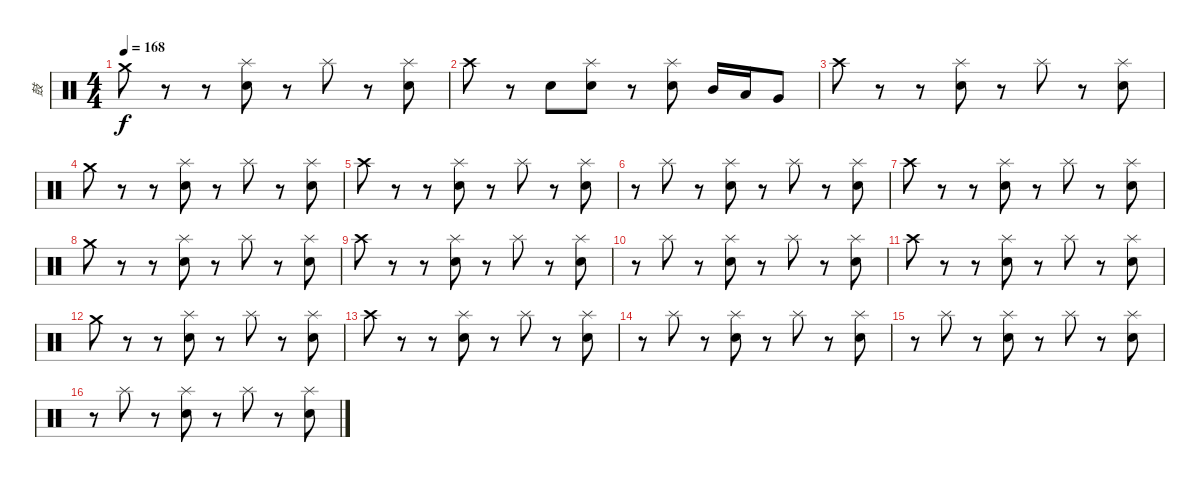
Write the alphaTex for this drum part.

\track ("鼓" "鼓") {instrument percussion}
\staff {score}
\articulation defaults
\ts (4 4)
\tempo 168
\clef neutral
\ks c "Crash medium (hit)".8{dy f}
r.8 r.8 ("Splash (hit)" "Snare (hit) 2").8 r.8 "Splash (hit)".8 r.8 ("Splash (hit)" "Snare (hit) 2").8 |
"Crash high (hit)".8 r.8 "Snare (hit) 2".8 ("Splash (hit)" "Snare (hit) 2").8 r.8 ("Splash (hit)" "Snare (hit) 2").8 "Mid Tom (hit)".16 "Low Tom (hit)".16 "Very Low Tom (hit)".8 |
"Crash high (hit)".8 r.8 r.8 ("Splash (hit)" "Snare (hit) 2").8 r.8 "Splash (hit)".8 r.8 ("Splash (hit)" "Snare (hit) 2").8 |
"Crash medium (hit)".8 r.8 r.8 ("Splash (hit)" "Snare (hit) 2").8 r.8 "Splash (hit)".8 r.8 ("Splash (hit)" "Snare (hit) 2").8 |
"Crash high (hit)".8 r.8 r.8 ("Splash (hit)" "Snare (hit) 2").8 r.8 "Splash (hit)".8 r.8 ("Splash (hit)" "Snare (hit) 2").8 |
r.8 "Splash (hit)".8 r.8 ("Splash (hit)" "Snare (hit) 2").8 r.8 "Splash (hit)".8 r.8 ("Splash (hit)" "Snare (hit) 2").8 |
"Crash high (hit)".8 r.8 r.8 ("Splash (hit)" "Snare (hit) 2").8 r.8 "Splash (hit)".8 r.8 ("Splash (hit)" "Snare (hit) 2").8 |
"Crash medium (hit)".8 r.8 r.8 ("Splash (hit)" "Snare (hit) 2").8 r.8 "Splash (hit)".8 r.8 ("Splash (hit)" "Snare (hit) 2").8 |
"Crash high (hit)".8 r.8 r.8 ("Splash (hit)" "Snare (hit) 2").8 r.8 "Splash (hit)".8 r.8 ("Splash (hit)" "Snare (hit) 2").8 |
r.8 "Splash (hit)".8 r.8 ("Splash (hit)" "Snare (hit) 2").8 r.8 "Splash (hit)".8 r.8 ("Splash (hit)" "Snare (hit) 2").8 |
"Crash high (hit)".8 r.8 r.8 ("Splash (hit)" "Snare (hit) 2").8 r.8 "Splash (hit)".8 r.8 ("Splash (hit)" "Snare (hit) 2").8 |
"Crash medium (hit)".8 r.8 r.8 ("Splash (hit)" "Snare (hit) 2").8 r.8 "Splash (hit)".8 r.8 ("Splash (hit)" "Snare (hit) 2").8 |
"Crash high (hit)".8 r.8 r.8 ("Splash (hit)" "Snare (hit) 2").8 r.8 "Splash (hit)".8 r.8 ("Splash (hit)" "Snare (hit) 2").8 |
r.8 "Splash (hit)".8 r.8 ("Splash (hit)" "Snare (hit) 2").8 r.8 "Splash (hit)".8 r.8 ("Splash (hit)" "Snare (hit) 2").8 |
r.8 "Splash (hit)".8 r.8 ("Splash (hit)" "Snare (hit) 2").8 r.8 "Splash (hit)".8 r.8 ("Splash (hit)" "Snare (hit) 2").8 |
r.8 "Splash (hit)".8 r.8 ("Splash (hit)" "Snare (hit) 2").8 r.8 "Splash (hit)".8 r.8 ("Splash (hit)" "Snare (hit) 2").8
